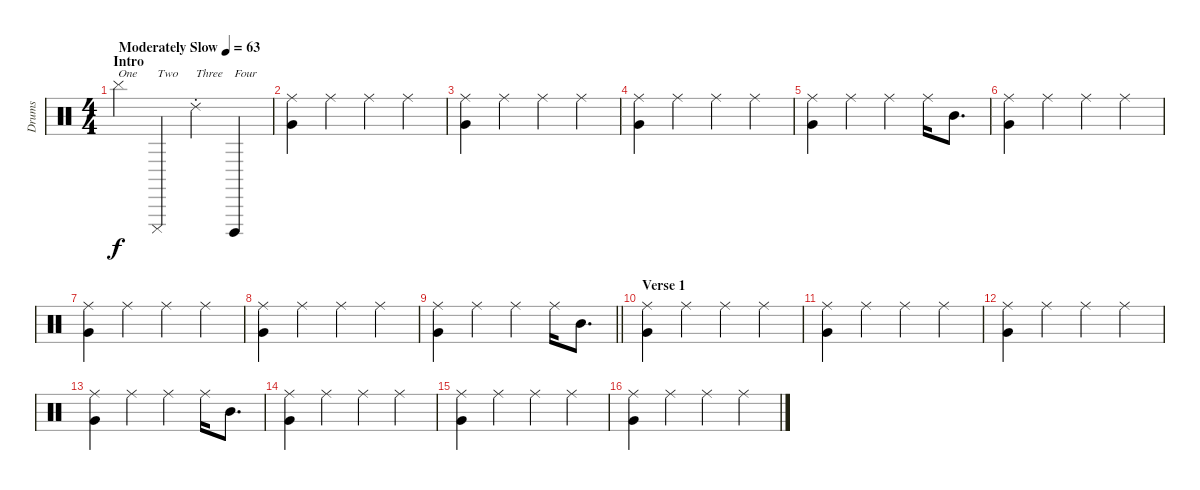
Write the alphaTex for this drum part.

\track ("Drums" "Drums") {instrument percussion}
\staff {score}
\articulation defaults
\ts (4 4)
\section ("" "Intro")
\tempo (63 "Moderately Slow")
\clef neutral
\ks c "Cymbal (hit)".4{txt "One" dy f} "Cuica (mute)".4{txt "Two"} "Ride (choke) 2".4{txt "Three"} "Cuica (open)".4{txt "Four"}
|
("Ride (middle)" "Very Low Tom (hit)").4 "Ride (middle)".4 "Ride (middle)".4 "Ride (middle)".4 |
("Ride (middle)" "Very Low Tom (hit)").4 "Ride (middle)".4 "Ride (middle)".4 "Ride (middle)".4 |
("Ride (middle)" "Very Low Tom (hit)").4 "Ride (middle)".4 "Ride (middle)".4 "Ride (middle)".4 |
("Ride (middle)" "Very Low Tom (hit)").4 "Ride (middle)".4 "Ride (middle)".4 "Ride (middle)".16 "Mid Tom (hit)".8{d} |
("Ride (middle)" "Very Low Tom (hit)").4 "Ride (middle)".4 "Ride (middle)".4 "Ride (middle)".4 |
("Ride (middle)" "Very Low Tom (hit)").4 "Ride (middle)".4 "Ride (middle)".4 "Ride (middle)".4 |
("Ride (middle)" "Very Low Tom (hit)").4 "Ride (middle)".4 "Ride (middle)".4 "Ride (middle)".4 |
\barLineRight lightlight
("Ride (middle)" "Very Low Tom (hit)").4 "Ride (middle)".4 "Ride (middle)".4 "Ride (middle)".16 "Mid Tom (hit)".8{d} |
\section ("" "Verse 1")
("Ride (middle)" "Very Low Tom (hit)").4 "Ride (middle)".4 "Ride (middle)".4 "Ride (middle)".4 |
("Ride (middle)" "Very Low Tom (hit)").4 "Ride (middle)".4 "Ride (middle)".4 "Ride (middle)".4 |
("Ride (middle)" "Very Low Tom (hit)").4 "Ride (middle)".4 "Ride (middle)".4 "Ride (middle)".4 |
("Ride (middle)" "Very Low Tom (hit)").4 "Ride (middle)".4 "Ride (middle)".4 "Ride (middle)".16 "Mid Tom (hit)".8{d} |
("Ride (middle)" "Very Low Tom (hit)").4 "Ride (middle)".4 "Ride (middle)".4 "Ride (middle)".4 |
("Ride (middle)" "Very Low Tom (hit)").4 "Ride (middle)".4 "Ride (middle)".4 "Ride (middle)".4 |
("Ride (middle)" "Very Low Tom (hit)").4 "Ride (middle)".4 "Ride (middle)".4 "Ride (middle)".4
